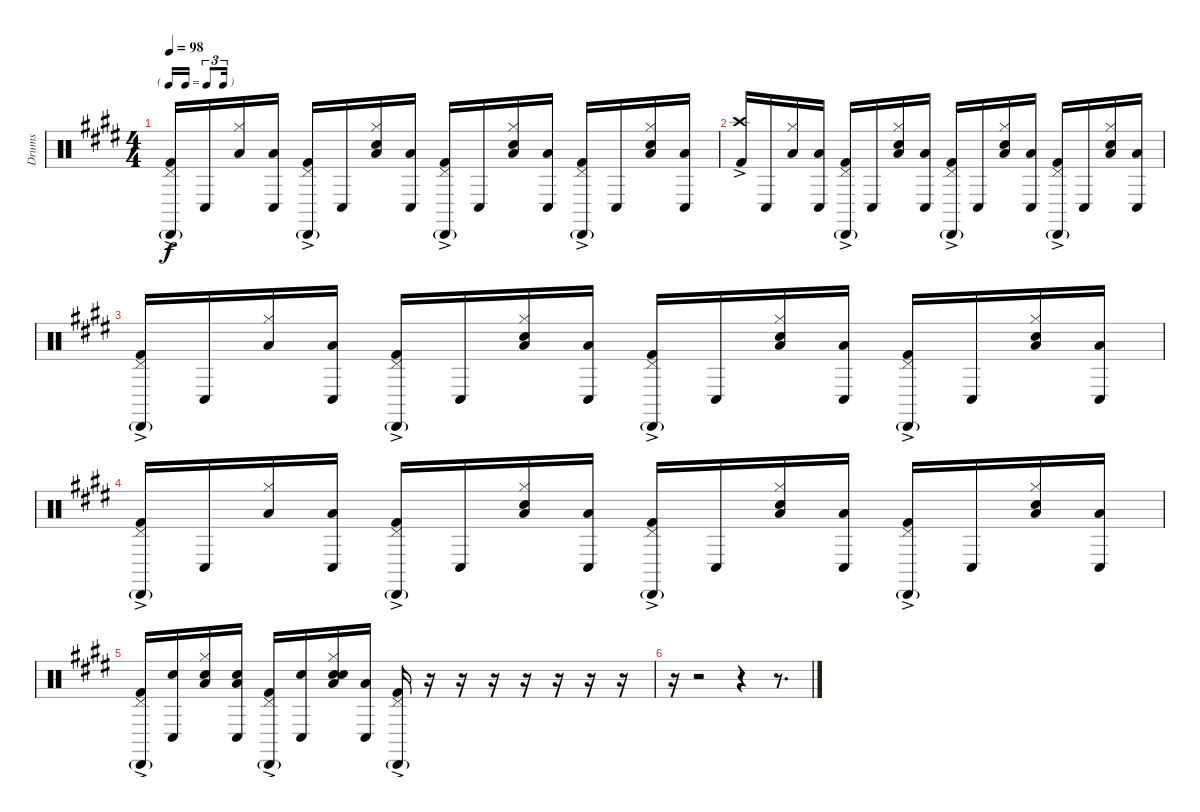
\track ("Drums" "Drums") {instrument percussion}
\staff {score}
\articulation defaults
\ts (4 4)
\tf triplet16th
\tempo 98
\clef neutral
\ks e
("Pedal Hi-Hat (hit)" "Cabasa (hit)"{g} "Kick (hit) 2"{ac}).16{dy f} "Conga low (hit)".16 ("Hi-Hat (closed)" "Low Tom (hit)").16 ("Low Tom (hit)" "Conga low (hit)").16 ("Pedal Hi-Hat (hit)" "Cabasa (hit)"{g} "Kick (hit) 2"{ac}).16 "Conga low (hit)".16 ("Hi-Hat (closed)" "Low Tom (hit)" "Hand Clap (hit)").16 ("Low Tom (hit)" "Conga low (hit)").16 ("Pedal Hi-Hat (hit)" "Cabasa (hit)"{g} "Kick (hit) 2"{ac}).16 "Conga low (hit)".16 ("Hi-Hat (closed)" "Low Tom (hit)" "Hand Clap (hit)").16 ("Low Tom (hit)" "Conga low (hit)").16 ("Pedal Hi-Hat (hit)" "Cabasa (hit)"{g} "Kick (hit) 2"{ac}).16 "Conga low (hit)".16 ("Hi-Hat (closed)" "Low Tom (hit)" "Hand Clap (hit)").16 ("Low Tom (hit)" "Conga low (hit)").16 |
("Crash high (hit)" "Kick (hit) 2"{ac}).16 "Conga low (hit)".16 ("Hi-Hat (closed)" "Low Tom (hit)").16 ("Low Tom (hit)" "Conga low (hit)").16 ("Pedal Hi-Hat (hit)" "Cabasa (hit)"{g} "Kick (hit) 2"{ac}).16 "Conga low (hit)".16 ("Hi-Hat (closed)" "Low Tom (hit)" "Hand Clap (hit)").16 ("Low Tom (hit)" "Conga low (hit)").16 ("Pedal Hi-Hat (hit)" "Cabasa (hit)"{g} "Kick (hit) 2"{ac}).16 "Conga low (hit)".16 ("Hi-Hat (closed)" "Low Tom (hit)" "Hand Clap (hit)").16 ("Low Tom (hit)" "Conga low (hit)").16 ("Pedal Hi-Hat (hit)" "Cabasa (hit)"{g} "Kick (hit) 2"{ac}).16 "Conga low (hit)".16 ("Hi-Hat (closed)" "Low Tom (hit)" "Hand Clap (hit)").16 ("Low Tom (hit)" "Conga low (hit)").16 |
("Pedal Hi-Hat (hit)" "Cabasa (hit)"{g} "Kick (hit) 2"{ac}).16 "Conga low (hit)".16 ("Hi-Hat (closed)" "Low Tom (hit)").16 ("Low Tom (hit)" "Conga low (hit)").16 ("Pedal Hi-Hat (hit)" "Cabasa (hit)"{g} "Kick (hit) 2"{ac}).16 "Conga low (hit)".16 ("Hi-Hat (closed)" "Low Tom (hit)" "Hand Clap (hit)").16 ("Low Tom (hit)" "Conga low (hit)").16 ("Pedal Hi-Hat (hit)" "Cabasa (hit)"{g} "Kick (hit) 2"{ac}).16 "Conga low (hit)".16 ("Hi-Hat (closed)" "Low Tom (hit)" "Hand Clap (hit)").16 ("Low Tom (hit)" "Conga low (hit)").16 ("Pedal Hi-Hat (hit)" "Cabasa (hit)"{g} "Kick (hit) 2"{ac}).16 "Conga low (hit)".16 ("Hi-Hat (closed)" "Low Tom (hit)" "Hand Clap (hit)").16 ("Low Tom (hit)" "Conga low (hit)").16 |
("Pedal Hi-Hat (hit)" "Cabasa (hit)"{g} "Kick (hit) 2"{ac}).16 "Conga low (hit)".16 ("Hi-Hat (closed)" "Low Tom (hit)").16 ("Low Tom (hit)" "Conga low (hit)").16 ("Pedal Hi-Hat (hit)" "Cabasa (hit)"{g} "Kick (hit) 2"{ac}).16 "Conga low (hit)".16 ("Hi-Hat (closed)" "Low Tom (hit)" "Hand Clap (hit)").16 ("Low Tom (hit)" "Conga low (hit)").16 ("Pedal Hi-Hat (hit)" "Cabasa (hit)"{g} "Kick (hit) 2"{ac}).16 "Conga low (hit)".16 ("Hi-Hat (closed)" "Low Tom (hit)" "Hand Clap (hit)").16 ("Low Tom (hit)" "Conga low (hit)").16 ("Pedal Hi-Hat (hit)" "Cabasa (hit)"{g} "Kick (hit) 2"{ac}).16 "Conga low (hit)".16 ("Hi-Hat (closed)" "Low Tom (hit)" "Hand Clap (hit)").16 ("Low Tom (hit)" "Conga low (hit)").16 |
("Pedal Hi-Hat (hit)" "Cabasa (hit)"{g} "Kick (hit) 2"{ac}).16 ("Conga low (hit)" "Snare (hit) 2").16 ("Hi-Hat (closed)" "Low Tom (hit)" "Snare (hit) 2").16 ("Low Tom (hit)" "Conga low (hit)" "Snare (hit) 2").16 ("Pedal Hi-Hat (hit)" "Cabasa (hit)"{g} "Kick (hit) 2"{ac}).16 ("Conga low (hit)" "Snare (hit) 2").16 ("Hand Clap (hit)" "Hi-Hat (closed)" "Low Tom (hit)" "Snare (hit) 2").16 ("Low Tom (hit)" "Conga low (hit)").16 ("Pedal Hi-Hat (hit)" "Cabasa (hit)"{g} "Kick (hit) 2"{ac}).16 r.16 r.16 r.16 r.16 r.16 r.16 r.16 |
r.16 r.2 r.4 r.8{d}
